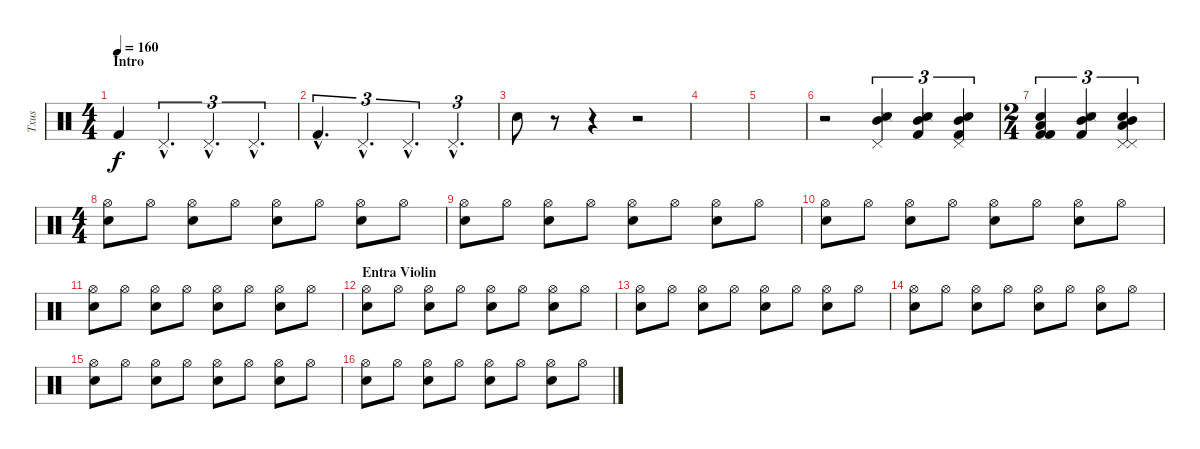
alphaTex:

\track ("Txus" "Txus") {instrument percussion}
\staff {score}
\articulation defaults
\ts (4 4)
\section ("" "Intro")
\tempo 160
\clef neutral
\ks c "Kick (hit) 2".4{dy f} "Pedal Hi-Hat (hit)"{hac}.4{d tu (3 2)} "Pedal Hi-Hat (hit)"{hac}.4{d tu (3 2)} "Pedal Hi-Hat (hit)"{hac}.4{d tu (3 2)}
|
"Kick (hit) 2"{hac}.4{d tu (3 2)} "Pedal Hi-Hat (hit)"{hac}.4{d tu (3 2)} "Pedal Hi-Hat (hit)"{hac}.4{d tu (3 2)} "Pedal Hi-Hat (hit)"{hac}.4{d tu (3 2)} |
"Snare (hit) 2".8 r.8 r.4 r.2 |
|
|
r.2 ("Snare (hit) 2" "Snare (side stick) 3" "Mid Tom (hit)" "Pedal Hi-Hat (hit)").4{tu (3 2)} ("Snare (hit) 2" "Kick (hit) 2" "Snare (side stick) 3" "Mid Tom (hit)").4{tu (3 2)} ("Snare (hit) 2" "Pedal Hi-Hat (hit)" "Kick (hit) 2" "Mid Tom (hit)").4{tu (3 2)} |
\ts (2 4)
("Snare (hit) 2" "Kick (hit) 2" "Kick (hit) 2" "Low Tom (hit)").4{tu (3 2)} ("Snare (hit) 2" "Snare (side stick) 3" "Mid Tom (hit)" "Kick (hit) 2").4{tu (3 2)} ("Low Tom (hit)" "Mid Tom (hit)" "Snare (hit) 2" "Pedal Hi-Hat (hit)" "Pedal Hi-Hat (hit)").4{tu (3 2)} |
\ts (4 4)
("Snare (hit) 2" "Hi-Hat (open)").8 "Hi-Hat (open)".8 ("Snare (hit) 2" "Hi-Hat (open)").8 "Hi-Hat (open)".8 ("Snare (hit) 2" "Hi-Hat (open)").8 "Hi-Hat (open)".8 ("Snare (hit) 2" "Hi-Hat (open)").8 "Hi-Hat (open)".8 |
("Snare (hit) 2" "Hi-Hat (open)").8 "Hi-Hat (open)".8 ("Snare (hit) 2" "Hi-Hat (open)").8 "Hi-Hat (open)".8 ("Snare (hit) 2" "Hi-Hat (open)").8 "Hi-Hat (open)".8 ("Snare (hit) 2" "Hi-Hat (open)").8 "Hi-Hat (open)".8 |
("Snare (hit) 2" "Hi-Hat (open)").8 "Hi-Hat (open)".8 ("Snare (hit) 2" "Hi-Hat (open)").8 "Hi-Hat (open)".8 ("Snare (hit) 2" "Hi-Hat (open)").8 "Hi-Hat (open)".8 ("Snare (hit) 2" "Hi-Hat (open)").8 "Hi-Hat (open)".8 |
("Snare (hit) 2" "Hi-Hat (open)").8 "Hi-Hat (open)".8 ("Snare (hit) 2" "Hi-Hat (open)").8 "Hi-Hat (open)".8 ("Snare (hit) 2" "Hi-Hat (open)").8 "Hi-Hat (open)".8 ("Snare (hit) 2" "Hi-Hat (open)").8 "Hi-Hat (open)".8 |
\section ("" "Entra Violin")
("Snare (hit) 2" "Hi-Hat (open)").8 "Hi-Hat (open)".8 ("Snare (hit) 2" "Hi-Hat (open)").8 "Hi-Hat (open)".8 ("Snare (hit) 2" "Hi-Hat (open)").8 "Hi-Hat (open)".8 ("Snare (hit) 2" "Hi-Hat (open)").8 "Hi-Hat (open)".8 |
("Snare (hit) 2" "Hi-Hat (open)").8 "Hi-Hat (open)".8 ("Snare (hit) 2" "Hi-Hat (open)").8 "Hi-Hat (open)".8 ("Snare (hit) 2" "Hi-Hat (open)").8 "Hi-Hat (open)".8 ("Snare (hit) 2" "Hi-Hat (open)").8 "Hi-Hat (open)".8 |
("Snare (hit) 2" "Hi-Hat (open)").8 "Hi-Hat (open)".8 ("Snare (hit) 2" "Hi-Hat (open)").8 "Hi-Hat (open)".8 ("Snare (hit) 2" "Hi-Hat (open)").8 "Hi-Hat (open)".8 ("Snare (hit) 2" "Hi-Hat (open)").8 "Hi-Hat (open)".8 |
("Snare (hit) 2" "Hi-Hat (open)").8 "Hi-Hat (open)".8 ("Snare (hit) 2" "Hi-Hat (open)").8 "Hi-Hat (open)".8 ("Snare (hit) 2" "Hi-Hat (open)").8 "Hi-Hat (open)".8 ("Snare (hit) 2" "Hi-Hat (open)").8 "Hi-Hat (open)".8 |
("Snare (hit) 2" "Hi-Hat (open)").8 "Hi-Hat (open)".8 ("Snare (hit) 2" "Hi-Hat (open)").8 "Hi-Hat (open)".8 ("Snare (hit) 2" "Hi-Hat (open)").8 "Hi-Hat (open)".8 ("Snare (hit) 2" "Hi-Hat (open)").8 "Hi-Hat (open)".8
